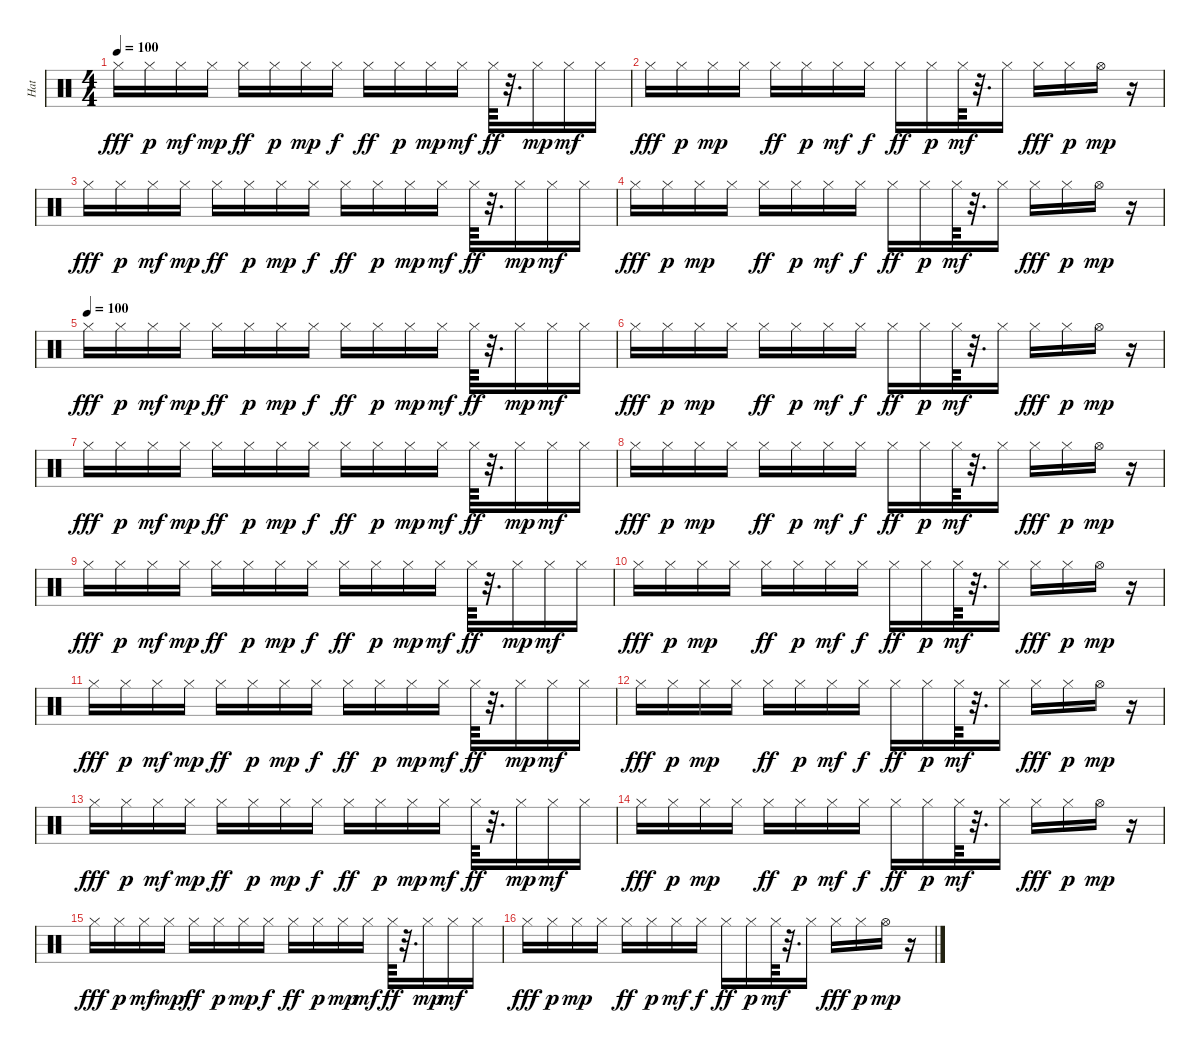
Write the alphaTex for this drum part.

\track ("Hat" "Hat") {instrument percussion}
\staff {score}
\articulation defaults
\ts (4 4)
\tempo 100
\clef neutral
\ks c "Hi-Hat (closed)".16{dy fff} "Hi-Hat (closed)".16{dy p} "Hi-Hat (closed)".16{dy mf} "Hi-Hat (closed)".16{dy mp} "Hi-Hat (closed)".16{dy ff} "Hi-Hat (closed)".16{dy p} "Hi-Hat (closed)".16{dy mp} "Hi-Hat (closed)".16{dy f} "Hi-Hat (closed)".16{dy ff} "Hi-Hat (closed)".16{dy p} "Hi-Hat (closed)".16{dy mp} "Hi-Hat (closed)".16{dy mf} "Hi-Hat (closed)".64{dy ff}
r.32{d} "Hi-Hat (closed)".16{dy mp} "Hi-Hat (closed)".16{dy mf} "Hi-Hat (closed)".16 |
"Hi-Hat (closed)".16{dy fff} "Hi-Hat (closed)".16{dy p} "Hi-Hat (closed)".16{dy mp} "Hi-Hat (closed)".16 "Hi-Hat (closed)".16{dy ff} "Hi-Hat (closed)".16{dy p} "Hi-Hat (closed)".16{dy mf} "Hi-Hat (closed)".16{dy f} "Hi-Hat (closed)".16{dy ff} "Hi-Hat (closed)".16{dy p} "Hi-Hat (closed)".64{dy mf} r.32{d} "Hi-Hat (closed)".16 "Hi-Hat (closed)".16{dy fff} "Hi-Hat (closed)".16{dy p} "Hi-Hat (open)".16{dy mp} r.16 |
"Hi-Hat (closed)".16{dy fff} "Hi-Hat (closed)".16{dy p} "Hi-Hat (closed)".16{dy mf} "Hi-Hat (closed)".16{dy mp} "Hi-Hat (closed)".16{dy ff} "Hi-Hat (closed)".16{dy p} "Hi-Hat (closed)".16{dy mp} "Hi-Hat (closed)".16{dy f} "Hi-Hat (closed)".16{dy ff} "Hi-Hat (closed)".16{dy p} "Hi-Hat (closed)".16{dy mp} "Hi-Hat (closed)".16{dy mf} "Hi-Hat (closed)".64{dy ff} r.32{d} "Hi-Hat (closed)".16{dy mp} "Hi-Hat (closed)".16{dy mf} "Hi-Hat (closed)".16 |
"Hi-Hat (closed)".16{dy fff} "Hi-Hat (closed)".16{dy p} "Hi-Hat (closed)".16{dy mp} "Hi-Hat (closed)".16 "Hi-Hat (closed)".16{dy ff} "Hi-Hat (closed)".16{dy p} "Hi-Hat (closed)".16{dy mf} "Hi-Hat (closed)".16{dy f} "Hi-Hat (closed)".16{dy ff} "Hi-Hat (closed)".16{dy p} "Hi-Hat (closed)".64{dy mf} r.32{d} "Hi-Hat (closed)".16 "Hi-Hat (closed)".16{dy fff} "Hi-Hat (closed)".16{dy p} "Hi-Hat (open)".16{dy mp} r.16 |
\tempo (100)
"Hi-Hat (closed)".16{dy fff} "Hi-Hat (closed)".16{dy p} "Hi-Hat (closed)".16{dy mf} "Hi-Hat (closed)".16{dy mp} "Hi-Hat (closed)".16{dy ff} "Hi-Hat (closed)".16{dy p} "Hi-Hat (closed)".16{dy mp} "Hi-Hat (closed)".16{dy f} "Hi-Hat (closed)".16{dy ff} "Hi-Hat (closed)".16{dy p} "Hi-Hat (closed)".16{dy mp} "Hi-Hat (closed)".16{dy mf} "Hi-Hat (closed)".64{dy ff} r.32{d} "Hi-Hat (closed)".16{dy mp} "Hi-Hat (closed)".16{dy mf} "Hi-Hat (closed)".16 |
"Hi-Hat (closed)".16{dy fff} "Hi-Hat (closed)".16{dy p} "Hi-Hat (closed)".16{dy mp} "Hi-Hat (closed)".16 "Hi-Hat (closed)".16{dy ff} "Hi-Hat (closed)".16{dy p} "Hi-Hat (closed)".16{dy mf} "Hi-Hat (closed)".16{dy f} "Hi-Hat (closed)".16{dy ff} "Hi-Hat (closed)".16{dy p} "Hi-Hat (closed)".64{dy mf} r.32{d} "Hi-Hat (closed)".16 "Hi-Hat (closed)".16{dy fff} "Hi-Hat (closed)".16{dy p} "Hi-Hat (open)".16{dy mp} r.16 |
"Hi-Hat (closed)".16{dy fff} "Hi-Hat (closed)".16{dy p} "Hi-Hat (closed)".16{dy mf} "Hi-Hat (closed)".16{dy mp} "Hi-Hat (closed)".16{dy ff} "Hi-Hat (closed)".16{dy p} "Hi-Hat (closed)".16{dy mp} "Hi-Hat (closed)".16{dy f} "Hi-Hat (closed)".16{dy ff} "Hi-Hat (closed)".16{dy p} "Hi-Hat (closed)".16{dy mp} "Hi-Hat (closed)".16{dy mf} "Hi-Hat (closed)".64{dy ff} r.32{d} "Hi-Hat (closed)".16{dy mp} "Hi-Hat (closed)".16{dy mf} "Hi-Hat (closed)".16 |
"Hi-Hat (closed)".16{dy fff} "Hi-Hat (closed)".16{dy p} "Hi-Hat (closed)".16{dy mp} "Hi-Hat (closed)".16 "Hi-Hat (closed)".16{dy ff} "Hi-Hat (closed)".16{dy p} "Hi-Hat (closed)".16{dy mf} "Hi-Hat (closed)".16{dy f} "Hi-Hat (closed)".16{dy ff} "Hi-Hat (closed)".16{dy p} "Hi-Hat (closed)".64{dy mf} r.32{d} "Hi-Hat (closed)".16 "Hi-Hat (closed)".16{dy fff} "Hi-Hat (closed)".16{dy p} "Hi-Hat (open)".16{dy mp} r.16 |
"Hi-Hat (closed)".16{dy fff} "Hi-Hat (closed)".16{dy p} "Hi-Hat (closed)".16{dy mf} "Hi-Hat (closed)".16{dy mp} "Hi-Hat (closed)".16{dy ff} "Hi-Hat (closed)".16{dy p} "Hi-Hat (closed)".16{dy mp} "Hi-Hat (closed)".16{dy f} "Hi-Hat (closed)".16{dy ff} "Hi-Hat (closed)".16{dy p} "Hi-Hat (closed)".16{dy mp} "Hi-Hat (closed)".16{dy mf} "Hi-Hat (closed)".64{dy ff} r.32{d} "Hi-Hat (closed)".16{dy mp} "Hi-Hat (closed)".16{dy mf} "Hi-Hat (closed)".16 |
"Hi-Hat (closed)".16{dy fff} "Hi-Hat (closed)".16{dy p} "Hi-Hat (closed)".16{dy mp} "Hi-Hat (closed)".16 "Hi-Hat (closed)".16{dy ff} "Hi-Hat (closed)".16{dy p} "Hi-Hat (closed)".16{dy mf} "Hi-Hat (closed)".16{dy f} "Hi-Hat (closed)".16{dy ff} "Hi-Hat (closed)".16{dy p} "Hi-Hat (closed)".64{dy mf} r.32{d} "Hi-Hat (closed)".16 "Hi-Hat (closed)".16{dy fff} "Hi-Hat (closed)".16{dy p} "Hi-Hat (open)".16{dy mp} r.16 |
"Hi-Hat (closed)".16{dy fff} "Hi-Hat (closed)".16{dy p} "Hi-Hat (closed)".16{dy mf} "Hi-Hat (closed)".16{dy mp} "Hi-Hat (closed)".16{dy ff} "Hi-Hat (closed)".16{dy p} "Hi-Hat (closed)".16{dy mp} "Hi-Hat (closed)".16{dy f} "Hi-Hat (closed)".16{dy ff} "Hi-Hat (closed)".16{dy p} "Hi-Hat (closed)".16{dy mp} "Hi-Hat (closed)".16{dy mf} "Hi-Hat (closed)".64{dy ff} r.32{d} "Hi-Hat (closed)".16{dy mp} "Hi-Hat (closed)".16{dy mf} "Hi-Hat (closed)".16 |
"Hi-Hat (closed)".16{dy fff} "Hi-Hat (closed)".16{dy p} "Hi-Hat (closed)".16{dy mp} "Hi-Hat (closed)".16 "Hi-Hat (closed)".16{dy ff} "Hi-Hat (closed)".16{dy p} "Hi-Hat (closed)".16{dy mf} "Hi-Hat (closed)".16{dy f} "Hi-Hat (closed)".16{dy ff} "Hi-Hat (closed)".16{dy p} "Hi-Hat (closed)".64{dy mf} r.32{d} "Hi-Hat (closed)".16 "Hi-Hat (closed)".16{dy fff} "Hi-Hat (closed)".16{dy p} "Hi-Hat (open)".16{dy mp} r.16 |
"Hi-Hat (closed)".16{dy fff} "Hi-Hat (closed)".16{dy p} "Hi-Hat (closed)".16{dy mf} "Hi-Hat (closed)".16{dy mp} "Hi-Hat (closed)".16{dy ff} "Hi-Hat (closed)".16{dy p} "Hi-Hat (closed)".16{dy mp} "Hi-Hat (closed)".16{dy f} "Hi-Hat (closed)".16{dy ff} "Hi-Hat (closed)".16{dy p} "Hi-Hat (closed)".16{dy mp} "Hi-Hat (closed)".16{dy mf} "Hi-Hat (closed)".64{dy ff} r.32{d} "Hi-Hat (closed)".16{dy mp} "Hi-Hat (closed)".16{dy mf} "Hi-Hat (closed)".16 |
"Hi-Hat (closed)".16{dy fff} "Hi-Hat (closed)".16{dy p} "Hi-Hat (closed)".16{dy mp} "Hi-Hat (closed)".16 "Hi-Hat (closed)".16{dy ff} "Hi-Hat (closed)".16{dy p} "Hi-Hat (closed)".16{dy mf} "Hi-Hat (closed)".16{dy f} "Hi-Hat (closed)".16{dy ff} "Hi-Hat (closed)".16{dy p} "Hi-Hat (closed)".64{dy mf} r.32{d} "Hi-Hat (closed)".16 "Hi-Hat (closed)".16{dy fff} "Hi-Hat (closed)".16{dy p} "Hi-Hat (open)".16{dy mp} r.16 |
"Hi-Hat (closed)".16{dy fff} "Hi-Hat (closed)".16{dy p} "Hi-Hat (closed)".16{dy mf} "Hi-Hat (closed)".16{dy mp} "Hi-Hat (closed)".16{dy ff} "Hi-Hat (closed)".16{dy p} "Hi-Hat (closed)".16{dy mp} "Hi-Hat (closed)".16{dy f} "Hi-Hat (closed)".16{dy ff} "Hi-Hat (closed)".16{dy p} "Hi-Hat (closed)".16{dy mp} "Hi-Hat (closed)".16{dy mf} "Hi-Hat (closed)".64{dy ff} r.32{d} "Hi-Hat (closed)".16{dy mp} "Hi-Hat (closed)".16{dy mf} "Hi-Hat (closed)".16 |
"Hi-Hat (closed)".16{dy fff} "Hi-Hat (closed)".16{dy p} "Hi-Hat (closed)".16{dy mp} "Hi-Hat (closed)".16 "Hi-Hat (closed)".16{dy ff} "Hi-Hat (closed)".16{dy p} "Hi-Hat (closed)".16{dy mf} "Hi-Hat (closed)".16{dy f} "Hi-Hat (closed)".16{dy ff} "Hi-Hat (closed)".16{dy p} "Hi-Hat (closed)".64{dy mf} r.32{d} "Hi-Hat (closed)".16 "Hi-Hat (closed)".16{dy fff} "Hi-Hat (closed)".16{dy p} "Hi-Hat (open)".16{dy mp} r.16
